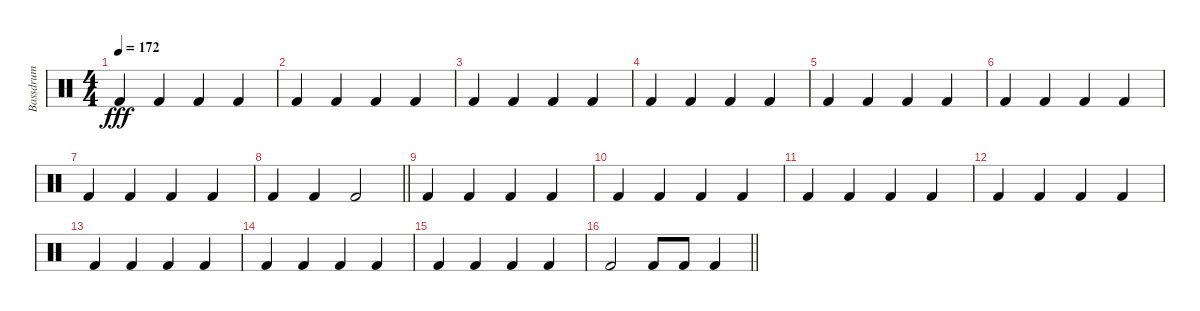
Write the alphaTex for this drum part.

\track ("Bassdrum" "Bassdrum") {instrument percussion}
\staff {score}
\articulation defaults
\ts (4 4)
\tempo 172
\clef neutral
\ks c "Kick (hit) 2".4{dy fff} "Kick (hit) 2".4 "Kick (hit) 2".4 "Kick (hit) 2".4
|
"Kick (hit) 2".4 "Kick (hit) 2".4 "Kick (hit) 2".4 "Kick (hit) 2".4 |
"Kick (hit) 2".4 "Kick (hit) 2".4 "Kick (hit) 2".4 "Kick (hit) 2".4 |
"Kick (hit) 2".4 "Kick (hit) 2".4 "Kick (hit) 2".4 "Kick (hit) 2".4 |
"Kick (hit) 2".4 "Kick (hit) 2".4 "Kick (hit) 2".4 "Kick (hit) 2".4 |
"Kick (hit) 2".4 "Kick (hit) 2".4 "Kick (hit) 2".4 "Kick (hit) 2".4 |
"Kick (hit) 2".4 "Kick (hit) 2".4 "Kick (hit) 2".4 "Kick (hit) 2".4 |
\barLineRight lightlight "Kick (hit) 2".4 "Kick (hit) 2".4 "Kick (hit) 2".2
|
\section ("" "")
"Kick (hit) 2".4 "Kick (hit) 2".4 "Kick (hit) 2".4 "Kick (hit) 2".4 |
"Kick (hit) 2".4 "Kick (hit) 2".4 "Kick (hit) 2".4 "Kick (hit) 2".4 |
"Kick (hit) 2".4 "Kick (hit) 2".4 "Kick (hit) 2".4 "Kick (hit) 2".4 |
"Kick (hit) 2".4 "Kick (hit) 2".4 "Kick (hit) 2".4 "Kick (hit) 2".4 |
"Kick (hit) 2".4 "Kick (hit) 2".4 "Kick (hit) 2".4 "Kick (hit) 2".4 |
"Kick (hit) 2".4 "Kick (hit) 2".4 "Kick (hit) 2".4 "Kick (hit) 2".4 |
"Kick (hit) 2".4 "Kick (hit) 2".4 "Kick (hit) 2".4 "Kick (hit) 2".4 |
\barLineRight lightlight "Kick (hit) 2".2 "Kick (hit) 2".8 "Kick (hit) 2".8 "Kick (hit) 2".4
